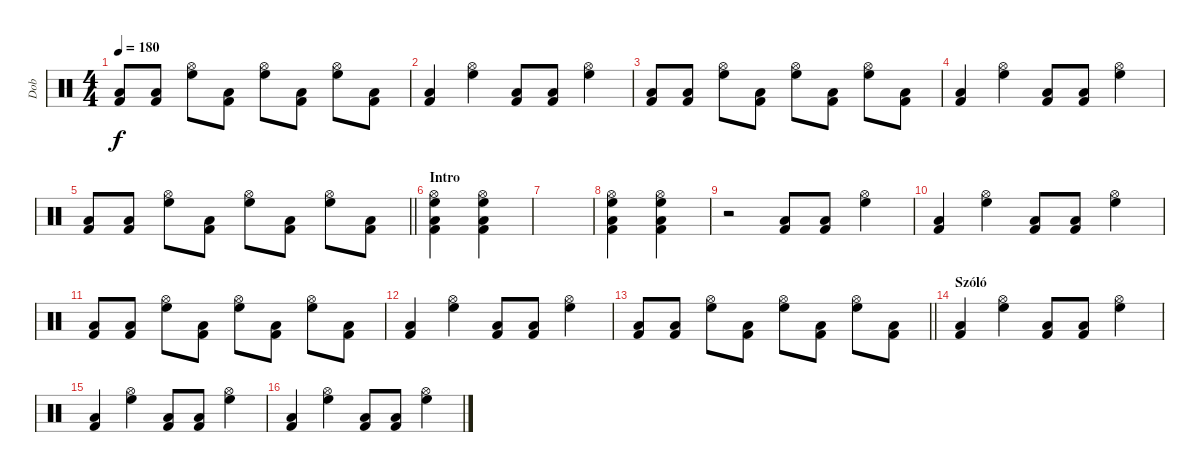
\track ("Dob" "Dob") {instrument percussion}
\staff {score}
\articulation defaults
\ts (4 4)
\tempo 180
\clef neutral
\ks c
("Low Tom (hit)" "Kick (hit) 2").8{dy f} ("Low Tom (hit)" "Kick (hit) 2").8 ("Hi-Hat (open)" "High Floor Tom (hit)").8 ("Low Tom (hit)" "Kick (hit) 2").8 ("Hi-Hat (open)" "High Floor Tom (hit)").8 ("Low Tom (hit)" "Kick (hit) 2").8 ("Hi-Hat (open)" "High Floor Tom (hit)").8 ("Low Tom (hit)" "Kick (hit) 2").8 |
("Low Tom (hit)" "Kick (hit) 2").4 ("Hi-Hat (open)" "High Floor Tom (hit)").4 ("Low Tom (hit)" "Kick (hit) 2").8 ("Low Tom (hit)" "Kick (hit) 2").8 ("Hi-Hat (open)" "High Floor Tom (hit)").4 |
("Low Tom (hit)" "Kick (hit) 2").8 ("Low Tom (hit)" "Kick (hit) 2").8 ("Hi-Hat (open)" "High Floor Tom (hit)").8 ("Low Tom (hit)" "Kick (hit) 2").8 ("Hi-Hat (open)" "High Floor Tom (hit)").8 ("Low Tom (hit)" "Kick (hit) 2").8 ("Hi-Hat (open)" "High Floor Tom (hit)").8 ("Low Tom (hit)" "Kick (hit) 2").8 |
("Low Tom (hit)" "Kick (hit) 2").4 ("Hi-Hat (open)" "High Floor Tom (hit)").4 ("Low Tom (hit)" "Kick (hit) 2").8 ("Low Tom (hit)" "Kick (hit) 2").8 ("Hi-Hat (open)" "High Floor Tom (hit)").4 |
\barLineRight lightlight
("Low Tom (hit)" "Kick (hit) 2").8 ("Low Tom (hit)" "Kick (hit) 2").8 ("Hi-Hat (open)" "High Floor Tom (hit)").8 ("Low Tom (hit)" "Kick (hit) 2").8 ("Hi-Hat (open)" "High Floor Tom (hit)").8 ("Low Tom (hit)" "Kick (hit) 2").8 ("Hi-Hat (open)" "High Floor Tom (hit)").8 ("Low Tom (hit)" "Kick (hit) 2").8 |
\section ("" "Intro")
("Hi-Hat (open)" "High Floor Tom (hit)" "Low Tom (hit)" "Kick (hit) 2").4 ("Hi-Hat (open)" "High Floor Tom (hit)" "Low Tom (hit)" "Kick (hit) 2").4 |
|
("Hi-Hat (open)" "High Floor Tom (hit)" "Low Tom (hit)" "Kick (hit) 2").4 ("Hi-Hat (open)" "High Floor Tom (hit)" "Low Tom (hit)" "Kick (hit) 2").4 |
r.2 ("Low Tom (hit)" "Kick (hit) 2").8 ("Low Tom (hit)" "Kick (hit) 2").8 ("Hi-Hat (open)" "High Floor Tom (hit)").4 |
("Low Tom (hit)" "Kick (hit) 2").4 ("Hi-Hat (open)" "High Floor Tom (hit)").4 ("Low Tom (hit)" "Kick (hit) 2").8 ("Low Tom (hit)" "Kick (hit) 2").8 ("Hi-Hat (open)" "High Floor Tom (hit)").4 |
("Low Tom (hit)" "Kick (hit) 2").8 ("Low Tom (hit)" "Kick (hit) 2").8 ("Hi-Hat (open)" "High Floor Tom (hit)").8 ("Low Tom (hit)" "Kick (hit) 2").8 ("Hi-Hat (open)" "High Floor Tom (hit)").8 ("Low Tom (hit)" "Kick (hit) 2").8 ("Hi-Hat (open)" "High Floor Tom (hit)").8 ("Low Tom (hit)" "Kick (hit) 2").8 |
("Low Tom (hit)" "Kick (hit) 2").4 ("Hi-Hat (open)" "High Floor Tom (hit)").4 ("Low Tom (hit)" "Kick (hit) 2").8 ("Low Tom (hit)" "Kick (hit) 2").8 ("Hi-Hat (open)" "High Floor Tom (hit)").4 |
\barLineRight lightlight
("Low Tom (hit)" "Kick (hit) 2").8 ("Low Tom (hit)" "Kick (hit) 2").8 ("Hi-Hat (open)" "High Floor Tom (hit)").8 ("Low Tom (hit)" "Kick (hit) 2").8 ("Hi-Hat (open)" "High Floor Tom (hit)").8 ("Low Tom (hit)" "Kick (hit) 2").8 ("Hi-Hat (open)" "High Floor Tom (hit)").8 ("Low Tom (hit)" "Kick (hit) 2").8 |
\section ("" "Szóló")
("Low Tom (hit)" "Kick (hit) 2").4 ("Hi-Hat (open)" "High Floor Tom (hit)").4 ("Low Tom (hit)" "Kick (hit) 2").8 ("Low Tom (hit)" "Kick (hit) 2").8 ("Hi-Hat (open)" "High Floor Tom (hit)").4 |
("Low Tom (hit)" "Kick (hit) 2").4 ("Hi-Hat (open)" "High Floor Tom (hit)").4 ("Low Tom (hit)" "Kick (hit) 2").8 ("Low Tom (hit)" "Kick (hit) 2").8 ("Hi-Hat (open)" "High Floor Tom (hit)").4 |
("Low Tom (hit)" "Kick (hit) 2").4 ("Hi-Hat (open)" "High Floor Tom (hit)").4 ("Low Tom (hit)" "Kick (hit) 2").8 ("Low Tom (hit)" "Kick (hit) 2").8 ("Hi-Hat (open)" "High Floor Tom (hit)").4
